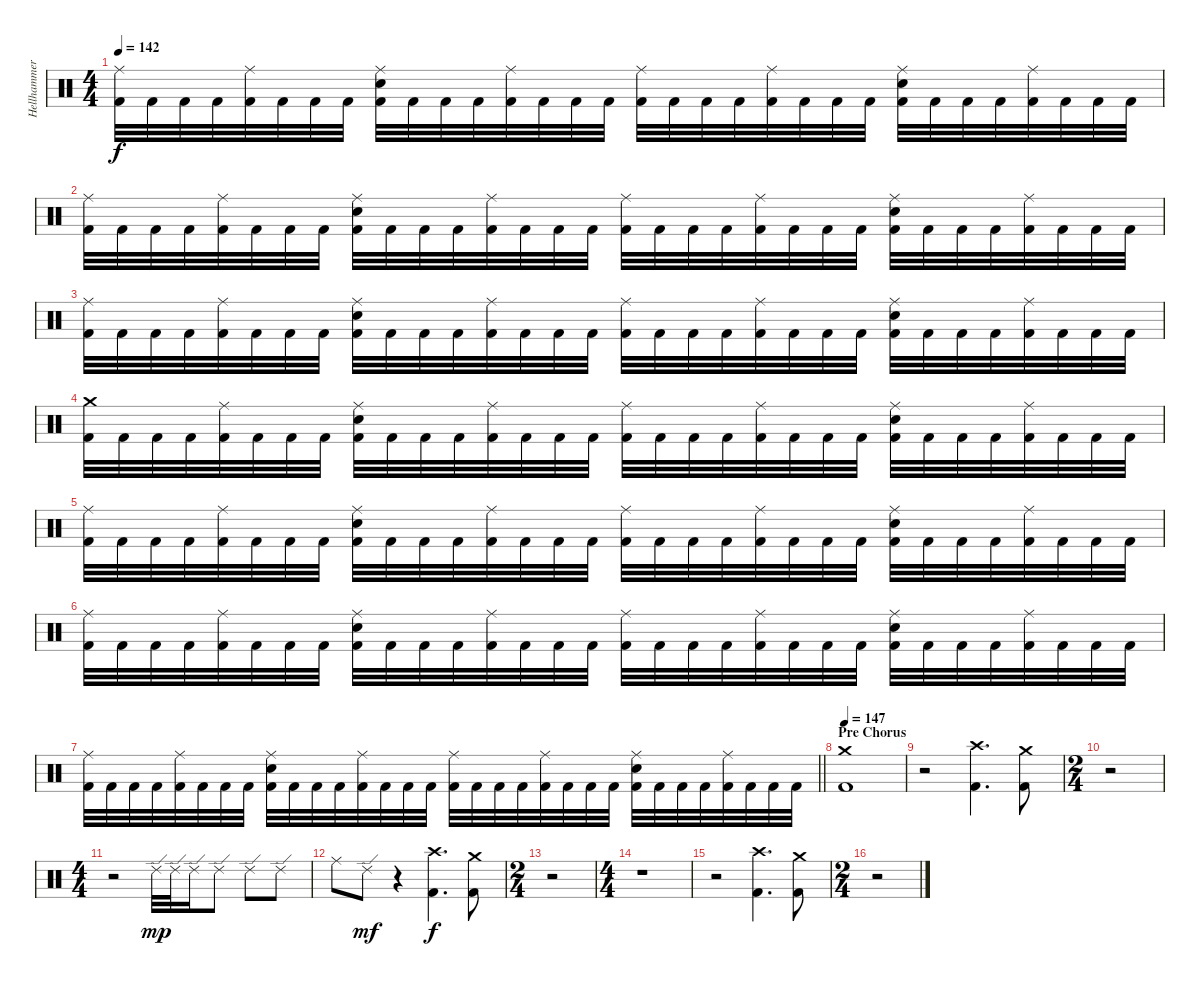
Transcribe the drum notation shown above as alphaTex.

\track ("Hellhammer" "Hellhammer") {instrument percussion}
\staff {score}
\articulation defaults
\ts (4 4)
\tempo 142
\clef neutral
\ks c
("Ride (middle)" "Kick (hit) 2").32{dy f} "Kick (hit) 2".32 "Kick (hit) 2".32 "Kick (hit) 2".32 ("Ride (middle)" "Kick (hit) 2").32 "Kick (hit) 2".32 "Kick (hit) 2".32 "Kick (hit) 2".32 ("Ride (middle)" "Electric Snare (hit)" "Kick (hit) 2").32 "Kick (hit) 2".32 "Kick (hit) 2".32 "Kick (hit) 2".32 ("Ride (middle)" "Kick (hit) 2").32 "Kick (hit) 2".32 "Kick (hit) 2".32 "Kick (hit) 2".32 ("Ride (middle)" "Kick (hit) 2").32 "Kick (hit) 2".32 "Kick (hit) 2".32 "Kick (hit) 2".32 ("Ride (middle)" "Kick (hit) 2").32 "Kick (hit) 2".32 "Kick (hit) 2".32 "Kick (hit) 2".32 ("Ride (middle)" "Electric Snare (hit)" "Kick (hit) 2").32 "Kick (hit) 2".32 "Kick (hit) 2".32 "Kick (hit) 2".32 ("Ride (middle)" "Kick (hit) 2").32 "Kick (hit) 2".32 "Kick (hit) 2".32 "Kick (hit) 2".32 |
("Ride (middle)" "Kick (hit) 2").32 "Kick (hit) 2".32 "Kick (hit) 2".32 "Kick (hit) 2".32 ("Ride (middle)" "Kick (hit) 2").32 "Kick (hit) 2".32 "Kick (hit) 2".32 "Kick (hit) 2".32 ("Ride (middle)" "Electric Snare (hit)" "Kick (hit) 2").32 "Kick (hit) 2".32 "Kick (hit) 2".32 "Kick (hit) 2".32 ("Ride (middle)" "Kick (hit) 2").32 "Kick (hit) 2".32 "Kick (hit) 2".32 "Kick (hit) 2".32 ("Ride (middle)" "Kick (hit) 2").32 "Kick (hit) 2".32 "Kick (hit) 2".32 "Kick (hit) 2".32 ("Ride (middle)" "Kick (hit) 2").32 "Kick (hit) 2".32 "Kick (hit) 2".32 "Kick (hit) 2".32 ("Ride (middle)" "Electric Snare (hit)" "Kick (hit) 2").32 "Kick (hit) 2".32 "Kick (hit) 2".32 "Kick (hit) 2".32 ("Ride (middle)" "Kick (hit) 2").32 "Kick (hit) 2".32 "Kick (hit) 2".32 "Kick (hit) 2".32 |
("Ride (middle)" "Kick (hit) 2").32 "Kick (hit) 2".32 "Kick (hit) 2".32 "Kick (hit) 2".32 ("Ride (middle)" "Kick (hit) 2").32 "Kick (hit) 2".32 "Kick (hit) 2".32 "Kick (hit) 2".32 ("Ride (middle)" "Electric Snare (hit)" "Kick (hit) 2").32 "Kick (hit) 2".32 "Kick (hit) 2".32 "Kick (hit) 2".32 ("Ride (middle)" "Kick (hit) 2").32 "Kick (hit) 2".32 "Kick (hit) 2".32 "Kick (hit) 2".32 ("Ride (middle)" "Kick (hit) 2").32 "Kick (hit) 2".32 "Kick (hit) 2".32 "Kick (hit) 2".32 ("Ride (middle)" "Kick (hit) 2").32 "Kick (hit) 2".32 "Kick (hit) 2".32 "Kick (hit) 2".32 ("Ride (middle)" "Electric Snare (hit)" "Kick (hit) 2").32 "Kick (hit) 2".32 "Kick (hit) 2".32 "Kick (hit) 2".32 ("Ride (middle)" "Kick (hit) 2").32 "Kick (hit) 2".32 "Kick (hit) 2".32 "Kick (hit) 2".32 |
("Crash medium (hit)" "Kick (hit) 2").32 "Kick (hit) 2".32 "Kick (hit) 2".32 "Kick (hit) 2".32 ("Ride (middle)" "Kick (hit) 2").32 "Kick (hit) 2".32 "Kick (hit) 2".32 "Kick (hit) 2".32 ("Ride (middle)" "Electric Snare (hit)" "Kick (hit) 2").32 "Kick (hit) 2".32 "Kick (hit) 2".32 "Kick (hit) 2".32 ("Ride (middle)" "Kick (hit) 2").32 "Kick (hit) 2".32 "Kick (hit) 2".32 "Kick (hit) 2".32 ("Ride (middle)" "Kick (hit) 2").32 "Kick (hit) 2".32 "Kick (hit) 2".32 "Kick (hit) 2".32 ("Ride (middle)" "Kick (hit) 2").32 "Kick (hit) 2".32 "Kick (hit) 2".32 "Kick (hit) 2".32 ("Ride (middle)" "Electric Snare (hit)" "Kick (hit) 2").32 "Kick (hit) 2".32 "Kick (hit) 2".32 "Kick (hit) 2".32 ("Ride (middle)" "Kick (hit) 2").32 "Kick (hit) 2".32 "Kick (hit) 2".32 "Kick (hit) 2".32 |
("Ride (middle)" "Kick (hit) 2").32 "Kick (hit) 2".32 "Kick (hit) 2".32 "Kick (hit) 2".32 ("Ride (middle)" "Kick (hit) 2").32 "Kick (hit) 2".32 "Kick (hit) 2".32 "Kick (hit) 2".32 ("Ride (middle)" "Electric Snare (hit)" "Kick (hit) 2").32 "Kick (hit) 2".32 "Kick (hit) 2".32 "Kick (hit) 2".32 ("Ride (middle)" "Kick (hit) 2").32 "Kick (hit) 2".32 "Kick (hit) 2".32 "Kick (hit) 2".32 ("Ride (middle)" "Kick (hit) 2").32 "Kick (hit) 2".32 "Kick (hit) 2".32 "Kick (hit) 2".32 ("Ride (middle)" "Kick (hit) 2").32 "Kick (hit) 2".32 "Kick (hit) 2".32 "Kick (hit) 2".32 ("Ride (middle)" "Electric Snare (hit)" "Kick (hit) 2").32 "Kick (hit) 2".32 "Kick (hit) 2".32 "Kick (hit) 2".32 ("Ride (middle)" "Kick (hit) 2").32 "Kick (hit) 2".32 "Kick (hit) 2".32 "Kick (hit) 2".32 |
("Ride (middle)" "Kick (hit) 2").32 "Kick (hit) 2".32 "Kick (hit) 2".32 "Kick (hit) 2".32 ("Ride (middle)" "Kick (hit) 2").32 "Kick (hit) 2".32 "Kick (hit) 2".32 "Kick (hit) 2".32 ("Ride (middle)" "Electric Snare (hit)" "Kick (hit) 2").32 "Kick (hit) 2".32 "Kick (hit) 2".32 "Kick (hit) 2".32 ("Ride (middle)" "Kick (hit) 2").32 "Kick (hit) 2".32 "Kick (hit) 2".32 "Kick (hit) 2".32 ("Ride (middle)" "Kick (hit) 2").32 "Kick (hit) 2".32 "Kick (hit) 2".32 "Kick (hit) 2".32 ("Ride (middle)" "Kick (hit) 2").32 "Kick (hit) 2".32 "Kick (hit) 2".32 "Kick (hit) 2".32 ("Ride (middle)" "Electric Snare (hit)" "Kick (hit) 2").32 "Kick (hit) 2".32 "Kick (hit) 2".32 "Kick (hit) 2".32 ("Ride (middle)" "Kick (hit) 2").32 "Kick (hit) 2".32 "Kick (hit) 2".32 "Kick (hit) 2".32 |
\barLineRight lightlight
("Ride (middle)" "Kick (hit) 2").32 "Kick (hit) 2".32 "Kick (hit) 2".32 "Kick (hit) 2".32 ("Ride (middle)" "Kick (hit) 2").32 "Kick (hit) 2".32 "Kick (hit) 2".32 "Kick (hit) 2".32 ("Ride (middle)" "Electric Snare (hit)" "Kick (hit) 2").32 "Kick (hit) 2".32 "Kick (hit) 2".32 "Kick (hit) 2".32 ("Ride (middle)" "Kick (hit) 2").32 "Kick (hit) 2".32 "Kick (hit) 2".32 "Kick (hit) 2".32 ("Ride (middle)" "Kick (hit) 2").32 "Kick (hit) 2".32 "Kick (hit) 2".32 "Kick (hit) 2".32 ("Ride (middle)" "Kick (hit) 2").32 "Kick (hit) 2".32 "Kick (hit) 2".32 "Kick (hit) 2".32 ("Ride (middle)" "Electric Snare (hit)" "Kick (hit) 2").32 "Kick (hit) 2".32 "Kick (hit) 2".32 "Kick (hit) 2".32 ("Ride (middle)" "Kick (hit) 2").32 "Kick (hit) 2".32 "Kick (hit) 2".32 "Kick (hit) 2".32 |
\section ("" "Pre Chorus")
\tempo 147
("Crash medium (hit)" "Kick (hit) 2").1 |
r.2 ("Crash high (hit)" "Kick (hit) 2").4{d} ("Crash medium (hit)" "Kick (hit) 2").8 |
\ts (2 4)
r.2 |
\ts (4 4)
r.2 "Ride (edge) 2".32{dy mp} "Ride (edge) 2".32 "Ride (edge) 2".16 "Ride (edge) 2".8 "Ride (edge) 2".8 "Ride (edge) 2".8 |
"Ride (middle)".8 "Ride (edge) 2".8{dy mf} r.4 ("Crash high (hit)" "Kick (hit) 2").4{d dy f} ("Crash medium (hit)" "Kick (hit) 2").8 |
\ts (2 4)
r.2 |
\ts (4 4)
r.1 |
r.2 ("Crash high (hit)" "Kick (hit) 2").4{d} ("Crash medium (hit)" "Kick (hit) 2").8 |
\ts (2 4)
r.2
